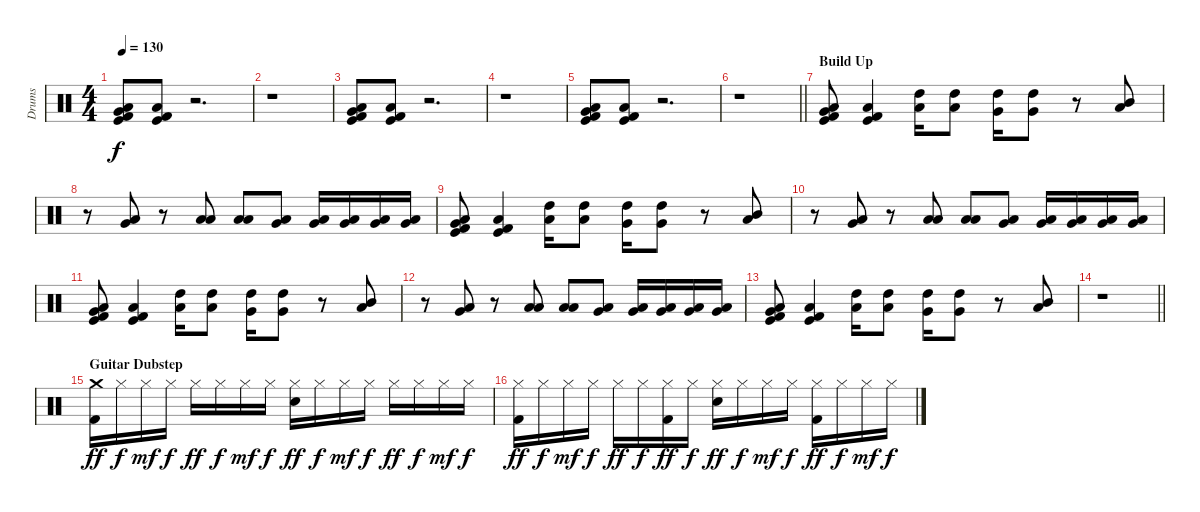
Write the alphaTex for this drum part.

\track ("Drums" "Drums") {instrument percussion}
\staff {score}
\articulation defaults
\ts (4 4)
\tempo 130
\clef neutral
\ks c
("Very Low Tom (hit)" "Low Floor Tom (hit)" "Kick (hit) 2" "Kick (hit)").8{dy f} ("Low Floor Tom (hit)" "Kick (hit)" "Kick (hit) 2").8 r.2{d} |
r.1 |
("Very Low Tom (hit)" "Low Floor Tom (hit)" "Kick (hit) 2" "Kick (hit)").8 ("Low Floor Tom (hit)" "Kick (hit)" "Kick (hit) 2").8 r.2{d} |
r.1 |
("Very Low Tom (hit)" "Low Floor Tom (hit)" "Kick (hit) 2" "Kick (hit)").8 ("Low Floor Tom (hit)" "Kick (hit)" "Kick (hit) 2").8 r.2{d} |
\barLineRight lightlight
r.1 |
\section ("" "Build Up")
("Very Low Tom (hit)" "Low Floor Tom (hit)" "Kick (hit) 2" "Kick (hit)").8 ("Low Floor Tom (hit)" "Kick (hit)" "Kick (hit) 2").4 ("High Tom (hit)" "Low Tom (hit)").16 ("High Tom (hit)" "Low Tom (hit)").8 ("High Tom (hit)" "Very Low Tom (hit)").16 ("High Tom (hit)" "Very Low Tom (hit)").8 r.8 ("Mid Tom (hit)" "Low Tom (hit)").8 |
r.8 ("Low Tom (hit)" "Very Low Tom (hit)").8 r.8 ("Low Tom (hit)" "Low Floor Tom (hit)").8 ("Low Tom (hit)" "Low Floor Tom (hit)").8 ("Very Low Tom (hit)" "Low Floor Tom (hit)").8 ("Very Low Tom (hit)" "Low Floor Tom (hit)").16 ("Very Low Tom (hit)" "Low Floor Tom (hit)").16 ("Very Low Tom (hit)" "Low Floor Tom (hit)").16 ("Very Low Tom (hit)" "Low Floor Tom (hit)").16 |
("Very Low Tom (hit)" "Low Floor Tom (hit)" "Kick (hit) 2" "Kick (hit)").8 ("Low Floor Tom (hit)" "Kick (hit)" "Kick (hit) 2").4 ("High Tom (hit)" "Low Tom (hit)").16 ("High Tom (hit)" "Low Tom (hit)").8 ("High Tom (hit)" "Very Low Tom (hit)").16 ("High Tom (hit)" "Very Low Tom (hit)").8 r.8 ("Mid Tom (hit)" "Low Tom (hit)").8 |
r.8 ("Low Tom (hit)" "Very Low Tom (hit)").8 r.8 ("Low Tom (hit)" "Low Floor Tom (hit)").8 ("Low Tom (hit)" "Low Floor Tom (hit)").8 ("Very Low Tom (hit)" "Low Floor Tom (hit)").8 ("Very Low Tom (hit)" "Low Floor Tom (hit)").16 ("Very Low Tom (hit)" "Low Floor Tom (hit)").16 ("Very Low Tom (hit)" "Low Floor Tom (hit)").16 ("Very Low Tom (hit)" "Low Floor Tom (hit)").16 |
("Very Low Tom (hit)" "Low Floor Tom (hit)" "Kick (hit) 2" "Kick (hit)").8 ("Low Floor Tom (hit)" "Kick (hit)" "Kick (hit) 2").4 ("High Tom (hit)" "Low Tom (hit)").16 ("High Tom (hit)" "Low Tom (hit)").8 ("High Tom (hit)" "Very Low Tom (hit)").16 ("High Tom (hit)" "Very Low Tom (hit)").8 r.8 ("Mid Tom (hit)" "Low Tom (hit)").8 |
r.8 ("Low Tom (hit)" "Very Low Tom (hit)").8 r.8 ("Low Tom (hit)" "Low Floor Tom (hit)").8 ("Low Tom (hit)" "Low Floor Tom (hit)").8 ("Very Low Tom (hit)" "Low Floor Tom (hit)").8 ("Very Low Tom (hit)" "Low Floor Tom (hit)").16 ("Very Low Tom (hit)" "Low Floor Tom (hit)").16 ("Very Low Tom (hit)" "Low Floor Tom (hit)").16 ("Very Low Tom (hit)" "Low Floor Tom (hit)").16 |
("Very Low Tom (hit)" "Low Floor Tom (hit)" "Kick (hit) 2" "Kick (hit)").8 ("Low Floor Tom (hit)" "Kick (hit)" "Kick (hit) 2").4 ("High Tom (hit)" "Low Tom (hit)").16 ("High Tom (hit)" "Low Tom (hit)").8 ("High Tom (hit)" "Very Low Tom (hit)").16 ("High Tom (hit)" "Very Low Tom (hit)").8 r.8 ("Mid Tom (hit)" "Low Tom (hit)").8 |
\barLineRight lightlight
r.1 |
\section ("" "Guitar Dubstep")
("Crash medium (hit)" "Kick (hit) 2").16{dy ff} "Hi-Hat (closed)".16{dy f} "Hi-Hat (closed)".16{dy mf} "Hi-Hat (closed)".16{dy f} "Hi-Hat (closed)".16{dy ff} "Hi-Hat (closed)".16{dy f} "Hi-Hat (closed)".16{dy mf} "Hi-Hat (closed)".16{dy f} ("Hi-Hat (closed)" "Snare (hit) 2").16{dy ff} "Hi-Hat (closed)".16{dy f} "Hi-Hat (closed)".16{dy mf} "Hi-Hat (closed)".16{dy f} "Hi-Hat (closed)".16{dy ff} "Hi-Hat (closed)".16{dy f} "Hi-Hat (closed)".16{dy mf} "Hi-Hat (closed)".16{dy f} |
("Hi-Hat (closed)" "Kick (hit) 2").16{dy ff} "Hi-Hat (closed)".16{dy f} "Hi-Hat (closed)".16{dy mf} "Hi-Hat (closed)".16{dy f} "Hi-Hat (closed)".16{dy ff} "Hi-Hat (closed)".16{dy f} ("Hi-Hat (closed)" "Kick (hit) 2").16{dy ff} "Hi-Hat (closed)".16{dy f} ("Hi-Hat (closed)" "Snare (hit) 2").16{dy ff} "Hi-Hat (closed)".16{dy f} "Hi-Hat (closed)".16{dy mf} "Hi-Hat (closed)".16{dy f} ("Hi-Hat (closed)" "Kick (hit) 2").16{dy ff} "Hi-Hat (closed)".16{dy f} "Hi-Hat (closed)".16{dy mf} "Hi-Hat (closed)".16{dy f}
